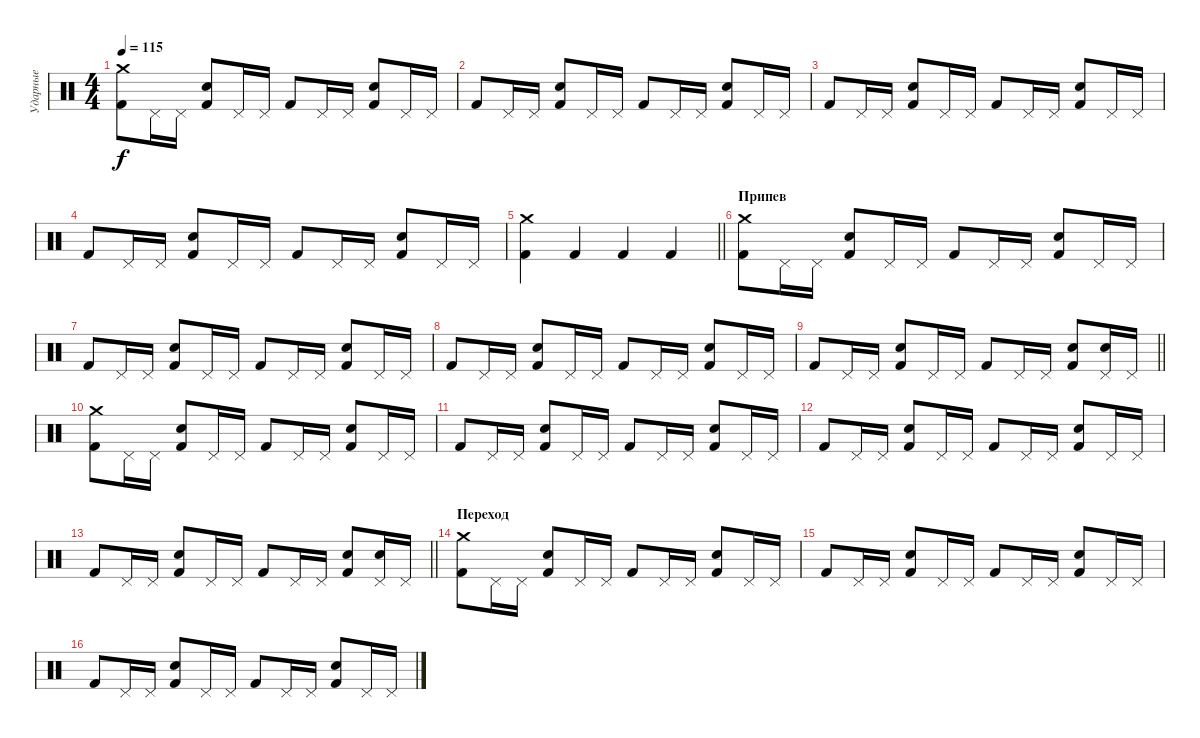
\track ("Ударные" "Ударные") {instrument percussion}
\staff {score}
\articulation defaults
\ts (4 4)
\tempo 115
\clef neutral
\ks c
("Kick (hit) 2" "Crash medium (hit)").8{dy f} "Pedal Hi-Hat (hit)".16 "Pedal Hi-Hat (hit)".16 ("Kick (hit) 2" "Electric Snare (hit)").8 "Pedal Hi-Hat (hit)".16 "Pedal Hi-Hat (hit)".16 "Kick (hit) 2".8 "Pedal Hi-Hat (hit)".16 "Pedal Hi-Hat (hit)".16 ("Kick (hit) 2" "Electric Snare (hit)").8 "Pedal Hi-Hat (hit)".16 "Pedal Hi-Hat (hit)".16 |
"Kick (hit) 2".8 "Pedal Hi-Hat (hit)".16 "Pedal Hi-Hat (hit)".16 ("Kick (hit) 2" "Electric Snare (hit)").8 "Pedal Hi-Hat (hit)".16 "Pedal Hi-Hat (hit)".16 "Kick (hit) 2".8 "Pedal Hi-Hat (hit)".16 "Pedal Hi-Hat (hit)".16 ("Kick (hit) 2" "Electric Snare (hit)").8 "Pedal Hi-Hat (hit)".16 "Pedal Hi-Hat (hit)".16 |
"Kick (hit) 2".8 "Pedal Hi-Hat (hit)".16 "Pedal Hi-Hat (hit)".16 ("Kick (hit) 2" "Electric Snare (hit)").8 "Pedal Hi-Hat (hit)".16 "Pedal Hi-Hat (hit)".16 "Kick (hit) 2".8 "Pedal Hi-Hat (hit)".16 "Pedal Hi-Hat (hit)".16 ("Kick (hit) 2" "Electric Snare (hit)").8 "Pedal Hi-Hat (hit)".16 "Pedal Hi-Hat (hit)".16 |
"Kick (hit) 2".8 "Pedal Hi-Hat (hit)".16 "Pedal Hi-Hat (hit)".16 ("Kick (hit) 2" "Electric Snare (hit)").8 "Pedal Hi-Hat (hit)".16 "Pedal Hi-Hat (hit)".16 "Kick (hit) 2".8 "Pedal Hi-Hat (hit)".16 "Pedal Hi-Hat (hit)".16 ("Kick (hit) 2" "Electric Snare (hit)").8 "Pedal Hi-Hat (hit)".16 "Pedal Hi-Hat (hit)".16 |
\barLineRight lightlight
("Kick (hit) 2" "Crash medium (hit)").4 "Kick (hit) 2".4 "Kick (hit) 2".4 "Kick (hit) 2".4 |
\section ("" "Припев")
("Kick (hit) 2" "Crash medium (hit)").8 "Pedal Hi-Hat (hit)".16 "Pedal Hi-Hat (hit)".16 ("Kick (hit) 2" "Electric Snare (hit)").8 "Pedal Hi-Hat (hit)".16 "Pedal Hi-Hat (hit)".16 "Kick (hit) 2".8 "Pedal Hi-Hat (hit)".16 "Pedal Hi-Hat (hit)".16 ("Kick (hit) 2" "Electric Snare (hit)").8 "Pedal Hi-Hat (hit)".16 "Pedal Hi-Hat (hit)".16 |
"Kick (hit) 2".8 "Pedal Hi-Hat (hit)".16 "Pedal Hi-Hat (hit)".16 ("Kick (hit) 2" "Electric Snare (hit)").8 "Pedal Hi-Hat (hit)".16 "Pedal Hi-Hat (hit)".16 "Kick (hit) 2".8 "Pedal Hi-Hat (hit)".16 "Pedal Hi-Hat (hit)".16 ("Kick (hit) 2" "Electric Snare (hit)").8 "Pedal Hi-Hat (hit)".16 "Pedal Hi-Hat (hit)".16 |
"Kick (hit) 2".8 "Pedal Hi-Hat (hit)".16 "Pedal Hi-Hat (hit)".16 ("Kick (hit) 2" "Electric Snare (hit)").8 "Pedal Hi-Hat (hit)".16 "Pedal Hi-Hat (hit)".16 "Kick (hit) 2".8 "Pedal Hi-Hat (hit)".16 "Pedal Hi-Hat (hit)".16 ("Kick (hit) 2" "Electric Snare (hit)").8 "Pedal Hi-Hat (hit)".16 "Pedal Hi-Hat (hit)".16 |
\barLineRight lightlight "Kick (hit) 2".8 "Pedal Hi-Hat (hit)".16 "Pedal Hi-Hat (hit)".16
("Kick (hit) 2" "Electric Snare (hit)").8 "Pedal Hi-Hat (hit)".16 "Pedal Hi-Hat (hit)".16 "Kick (hit) 2".8 "Pedal Hi-Hat (hit)".16 "Pedal Hi-Hat (hit)".16 ("Kick (hit) 2" "Electric Snare (hit)").8 ("Pedal Hi-Hat (hit)" "Electric Snare (hit)").16 "Pedal Hi-Hat (hit)".16 |
("Kick (hit) 2" "Crash medium (hit)").8 "Pedal Hi-Hat (hit)".16 "Pedal Hi-Hat (hit)".16 ("Kick (hit) 2" "Electric Snare (hit)").8 "Pedal Hi-Hat (hit)".16 "Pedal Hi-Hat (hit)".16 "Kick (hit) 2".8 "Pedal Hi-Hat (hit)".16 "Pedal Hi-Hat (hit)".16 ("Kick (hit) 2" "Electric Snare (hit)").8 "Pedal Hi-Hat (hit)".16 "Pedal Hi-Hat (hit)".16 |
"Kick (hit) 2".8 "Pedal Hi-Hat (hit)".16 "Pedal Hi-Hat (hit)".16 ("Kick (hit) 2" "Electric Snare (hit)").8 "Pedal Hi-Hat (hit)".16 "Pedal Hi-Hat (hit)".16 "Kick (hit) 2".8 "Pedal Hi-Hat (hit)".16 "Pedal Hi-Hat (hit)".16 ("Kick (hit) 2" "Electric Snare (hit)").8 "Pedal Hi-Hat (hit)".16 "Pedal Hi-Hat (hit)".16 |
"Kick (hit) 2".8 "Pedal Hi-Hat (hit)".16 "Pedal Hi-Hat (hit)".16 ("Kick (hit) 2" "Electric Snare (hit)").8 "Pedal Hi-Hat (hit)".16 "Pedal Hi-Hat (hit)".16 "Kick (hit) 2".8 "Pedal Hi-Hat (hit)".16 "Pedal Hi-Hat (hit)".16 ("Kick (hit) 2" "Electric Snare (hit)").8 "Pedal Hi-Hat (hit)".16 "Pedal Hi-Hat (hit)".16 |
\barLineRight lightlight "Kick (hit) 2".8 "Pedal Hi-Hat (hit)".16 "Pedal Hi-Hat (hit)".16
("Kick (hit) 2" "Electric Snare (hit)").8 "Pedal Hi-Hat (hit)".16 "Pedal Hi-Hat (hit)".16 "Kick (hit) 2".8 "Pedal Hi-Hat (hit)".16 "Pedal Hi-Hat (hit)".16 ("Kick (hit) 2" "Electric Snare (hit)").8 ("Pedal Hi-Hat (hit)" "Electric Snare (hit)").16 "Pedal Hi-Hat (hit)".16 |
\section ("" "Переход")
("Kick (hit) 2" "Crash medium (hit)").8 "Pedal Hi-Hat (hit)".16 "Pedal Hi-Hat (hit)".16 ("Kick (hit) 2" "Electric Snare (hit)").8 "Pedal Hi-Hat (hit)".16 "Pedal Hi-Hat (hit)".16 "Kick (hit) 2".8 "Pedal Hi-Hat (hit)".16 "Pedal Hi-Hat (hit)".16 ("Kick (hit) 2" "Electric Snare (hit)").8 "Pedal Hi-Hat (hit)".16 "Pedal Hi-Hat (hit)".16 |
"Kick (hit) 2".8 "Pedal Hi-Hat (hit)".16 "Pedal Hi-Hat (hit)".16 ("Kick (hit) 2" "Electric Snare (hit)").8 "Pedal Hi-Hat (hit)".16 "Pedal Hi-Hat (hit)".16 "Kick (hit) 2".8 "Pedal Hi-Hat (hit)".16 "Pedal Hi-Hat (hit)".16 ("Kick (hit) 2" "Electric Snare (hit)").8 "Pedal Hi-Hat (hit)".16 "Pedal Hi-Hat (hit)".16 |
"Kick (hit) 2".8 "Pedal Hi-Hat (hit)".16 "Pedal Hi-Hat (hit)".16 ("Kick (hit) 2" "Electric Snare (hit)").8 "Pedal Hi-Hat (hit)".16 "Pedal Hi-Hat (hit)".16 "Kick (hit) 2".8 "Pedal Hi-Hat (hit)".16 "Pedal Hi-Hat (hit)".16 ("Kick (hit) 2" "Electric Snare (hit)").8 "Pedal Hi-Hat (hit)".16 "Pedal Hi-Hat (hit)".16
